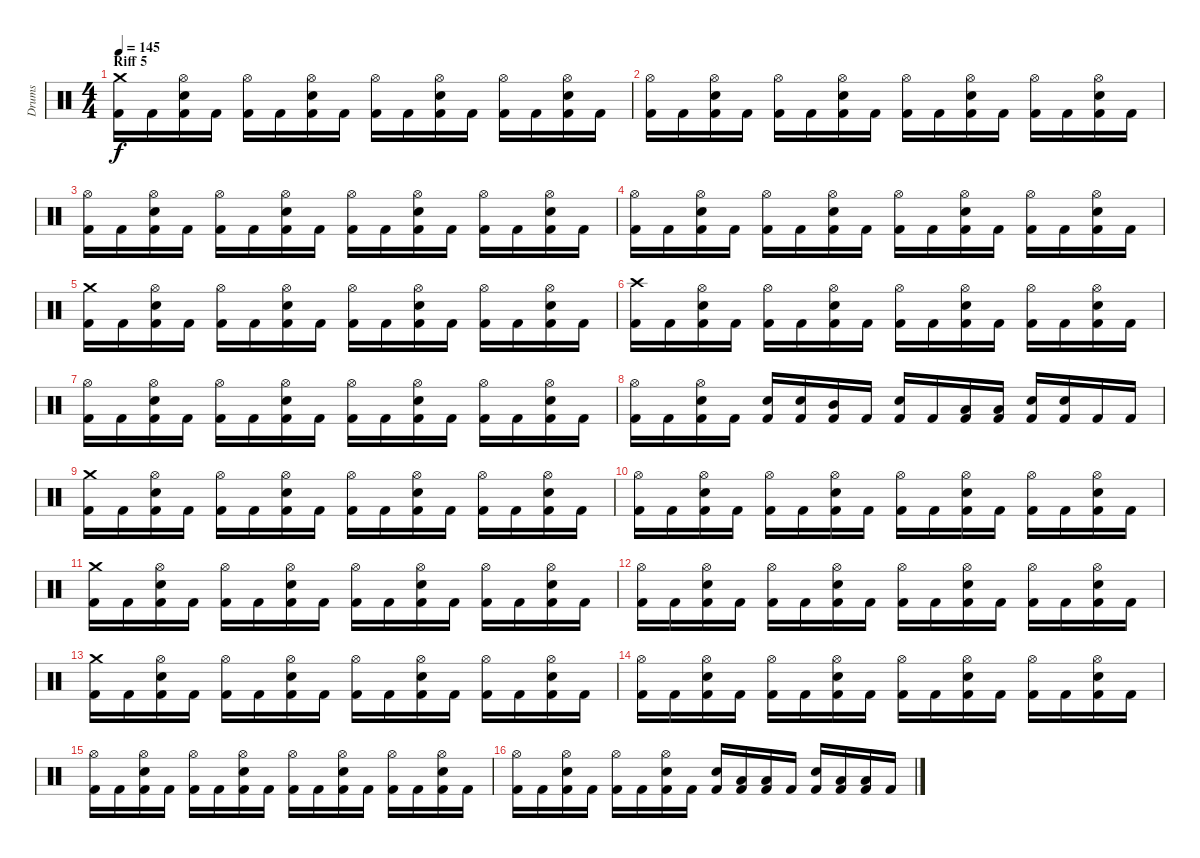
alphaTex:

\track ("Drums" "Drums") {instrument percussion}
\staff {score}
\articulation defaults
\ts (4 4)
\section ("" "Riff 5")
\tempo 145
\clef neutral
\ks c
("Crash medium (hit)" "Kick (hit) 2").16{dy f} "Kick (hit) 2".16 ("Hi-Hat (open)" "Electric Snare (hit)" "Kick (hit) 2").16 "Kick (hit) 2".16 ("Hi-Hat (open)" "Kick (hit) 2").16 "Kick (hit) 2".16 ("Hi-Hat (open)" "Electric Snare (hit)" "Kick (hit) 2").16 "Kick (hit) 2".16 ("Hi-Hat (open)" "Kick (hit) 2").16 "Kick (hit) 2".16 ("Hi-Hat (open)" "Electric Snare (hit)" "Kick (hit) 2").16 "Kick (hit) 2".16 ("Hi-Hat (open)" "Kick (hit) 2").16 "Kick (hit) 2".16 ("Hi-Hat (open)" "Electric Snare (hit)" "Kick (hit) 2").16 "Kick (hit) 2".16 |
("Hi-Hat (open)" "Kick (hit) 2").16 "Kick (hit) 2".16 ("Hi-Hat (open)" "Electric Snare (hit)" "Kick (hit) 2").16 "Kick (hit) 2".16 ("Hi-Hat (open)" "Kick (hit) 2").16 "Kick (hit) 2".16 ("Hi-Hat (open)" "Electric Snare (hit)" "Kick (hit) 2").16 "Kick (hit) 2".16 ("Hi-Hat (open)" "Kick (hit) 2").16 "Kick (hit) 2".16 ("Hi-Hat (open)" "Electric Snare (hit)" "Kick (hit) 2").16 "Kick (hit) 2".16 ("Hi-Hat (open)" "Kick (hit) 2").16 "Kick (hit) 2".16 ("Hi-Hat (open)" "Electric Snare (hit)" "Kick (hit) 2").16 "Kick (hit) 2".16 |
("Hi-Hat (open)" "Kick (hit) 2").16 "Kick (hit) 2".16 ("Hi-Hat (open)" "Electric Snare (hit)" "Kick (hit) 2").16 "Kick (hit) 2".16 ("Hi-Hat (open)" "Kick (hit) 2").16 "Kick (hit) 2".16 ("Hi-Hat (open)" "Electric Snare (hit)" "Kick (hit) 2").16 "Kick (hit) 2".16 ("Hi-Hat (open)" "Kick (hit) 2").16 "Kick (hit) 2".16 ("Hi-Hat (open)" "Electric Snare (hit)" "Kick (hit) 2").16 "Kick (hit) 2".16 ("Hi-Hat (open)" "Kick (hit) 2").16 "Kick (hit) 2".16 ("Hi-Hat (open)" "Electric Snare (hit)" "Kick (hit) 2").16 "Kick (hit) 2".16 |
("Hi-Hat (open)" "Kick (hit) 2").16 "Kick (hit) 2".16 ("Hi-Hat (open)" "Electric Snare (hit)" "Kick (hit) 2").16 "Kick (hit) 2".16 ("Hi-Hat (open)" "Kick (hit) 2").16 "Kick (hit) 2".16 ("Hi-Hat (open)" "Electric Snare (hit)" "Kick (hit) 2").16 "Kick (hit) 2".16 ("Hi-Hat (open)" "Kick (hit) 2").16 "Kick (hit) 2".16 ("Hi-Hat (open)" "Electric Snare (hit)" "Kick (hit) 2").16 "Kick (hit) 2".16 ("Hi-Hat (open)" "Kick (hit) 2").16 "Kick (hit) 2".16 ("Hi-Hat (open)" "Electric Snare (hit)" "Kick (hit) 2").16 "Kick (hit) 2".16 |
("Crash medium (hit)" "Kick (hit) 2").16 "Kick (hit) 2".16 ("Hi-Hat (open)" "Electric Snare (hit)" "Kick (hit) 2").16 "Kick (hit) 2".16 ("Hi-Hat (open)" "Kick (hit) 2").16 "Kick (hit) 2".16 ("Hi-Hat (open)" "Electric Snare (hit)" "Kick (hit) 2").16 "Kick (hit) 2".16 ("Hi-Hat (open)" "Kick (hit) 2").16 "Kick (hit) 2".16 ("Hi-Hat (open)" "Electric Snare (hit)" "Kick (hit) 2").16 "Kick (hit) 2".16 ("Hi-Hat (open)" "Kick (hit) 2").16 "Kick (hit) 2".16 ("Hi-Hat (open)" "Electric Snare (hit)" "Kick (hit) 2").16 "Kick (hit) 2".16 |
("Crash high (hit)" "Kick (hit) 2").16 "Kick (hit) 2".16 ("Hi-Hat (open)" "Electric Snare (hit)" "Kick (hit) 2").16 "Kick (hit) 2".16 ("Hi-Hat (open)" "Kick (hit) 2").16 "Kick (hit) 2".16 ("Hi-Hat (open)" "Electric Snare (hit)" "Kick (hit) 2").16 "Kick (hit) 2".16 ("Hi-Hat (open)" "Kick (hit) 2").16 "Kick (hit) 2".16 ("Hi-Hat (open)" "Electric Snare (hit)" "Kick (hit) 2").16 "Kick (hit) 2".16 ("Hi-Hat (open)" "Kick (hit) 2").16 "Kick (hit) 2".16 ("Hi-Hat (open)" "Electric Snare (hit)" "Kick (hit) 2").16 "Kick (hit) 2".16 |
("Hi-Hat (open)" "Kick (hit) 2").16 "Kick (hit) 2".16 ("Hi-Hat (open)" "Electric Snare (hit)" "Kick (hit) 2").16 "Kick (hit) 2".16 ("Hi-Hat (open)" "Kick (hit) 2").16 "Kick (hit) 2".16 ("Hi-Hat (open)" "Electric Snare (hit)" "Kick (hit) 2").16 "Kick (hit) 2".16 ("Hi-Hat (open)" "Kick (hit) 2").16 "Kick (hit) 2".16 ("Hi-Hat (open)" "Electric Snare (hit)" "Kick (hit) 2").16 "Kick (hit) 2".16 ("Hi-Hat (open)" "Kick (hit) 2").16 "Kick (hit) 2".16 ("Hi-Hat (open)" "Electric Snare (hit)" "Kick (hit) 2").16 "Kick (hit) 2".16 |
("Hi-Hat (open)" "Kick (hit) 2").16 "Kick (hit) 2".16 ("Hi-Hat (open)" "Electric Snare (hit)" "Kick (hit) 2").16 "Kick (hit) 2".16 ("Electric Snare (hit)" "Kick (hit) 2").16 ("Electric Snare (hit)" "Kick (hit) 2").16 ("Mid Tom (hit)" "Kick (hit) 2").16 "Kick (hit) 2".16 ("Electric Snare (hit)" "Kick (hit) 2").16 "Kick (hit) 2".16 ("Low Tom (hit)" "Kick (hit) 2").16 ("Low Tom (hit)" "Kick (hit) 2").16 ("Electric Snare (hit)" "Kick (hit) 2").16 ("Electric Snare (hit)" "Kick (hit) 2").16 "Kick (hit) 2".16 "Kick (hit) 2".16 |
("Crash medium (hit)" "Kick (hit) 2").16 "Kick (hit) 2".16 ("Hi-Hat (open)" "Electric Snare (hit)" "Kick (hit) 2").16 "Kick (hit) 2".16 ("Hi-Hat (open)" "Kick (hit) 2").16 "Kick (hit) 2".16 ("Hi-Hat (open)" "Electric Snare (hit)" "Kick (hit) 2").16 "Kick (hit) 2".16 ("Hi-Hat (open)" "Kick (hit) 2").16 "Kick (hit) 2".16 ("Hi-Hat (open)" "Electric Snare (hit)" "Kick (hit) 2").16 "Kick (hit) 2".16 ("Hi-Hat (open)" "Kick (hit) 2").16 "Kick (hit) 2".16 ("Hi-Hat (open)" "Electric Snare (hit)" "Kick (hit) 2").16 "Kick (hit) 2".16 |
("Hi-Hat (open)" "Kick (hit) 2").16 "Kick (hit) 2".16 ("Hi-Hat (open)" "Electric Snare (hit)" "Kick (hit) 2").16 "Kick (hit) 2".16 ("Hi-Hat (open)" "Kick (hit) 2").16 "Kick (hit) 2".16 ("Hi-Hat (open)" "Electric Snare (hit)" "Kick (hit) 2").16 "Kick (hit) 2".16 ("Hi-Hat (open)" "Kick (hit) 2").16 "Kick (hit) 2".16 ("Hi-Hat (open)" "Electric Snare (hit)" "Kick (hit) 2").16 "Kick (hit) 2".16 ("Hi-Hat (open)" "Kick (hit) 2").16 "Kick (hit) 2".16 ("Hi-Hat (open)" "Electric Snare (hit)" "Kick (hit) 2").16 "Kick (hit) 2".16 |
("Crash medium (hit)" "Kick (hit) 2").16 "Kick (hit) 2".16 ("Hi-Hat (open)" "Electric Snare (hit)" "Kick (hit) 2").16 "Kick (hit) 2".16 ("Hi-Hat (open)" "Kick (hit) 2").16 "Kick (hit) 2".16 ("Hi-Hat (open)" "Electric Snare (hit)" "Kick (hit) 2").16 "Kick (hit) 2".16 ("Hi-Hat (open)" "Kick (hit) 2").16 "Kick (hit) 2".16 ("Hi-Hat (open)" "Electric Snare (hit)" "Kick (hit) 2").16 "Kick (hit) 2".16 ("Hi-Hat (open)" "Kick (hit) 2").16 "Kick (hit) 2".16 ("Hi-Hat (open)" "Electric Snare (hit)" "Kick (hit) 2").16 "Kick (hit) 2".16 |
("Hi-Hat (open)" "Kick (hit) 2").16 "Kick (hit) 2".16 ("Hi-Hat (open)" "Electric Snare (hit)" "Kick (hit) 2").16 "Kick (hit) 2".16 ("Hi-Hat (open)" "Kick (hit) 2").16 "Kick (hit) 2".16 ("Hi-Hat (open)" "Electric Snare (hit)" "Kick (hit) 2").16 "Kick (hit) 2".16 ("Hi-Hat (open)" "Kick (hit) 2").16 "Kick (hit) 2".16 ("Hi-Hat (open)" "Electric Snare (hit)" "Kick (hit) 2").16 "Kick (hit) 2".16 ("Hi-Hat (open)" "Kick (hit) 2").16 "Kick (hit) 2".16 ("Hi-Hat (open)" "Electric Snare (hit)" "Kick (hit) 2").16 "Kick (hit) 2".16 |
("Crash medium (hit)" "Kick (hit) 2").16 "Kick (hit) 2".16 ("Hi-Hat (open)" "Electric Snare (hit)" "Kick (hit) 2").16 "Kick (hit) 2".16 ("Hi-Hat (open)" "Kick (hit) 2").16 "Kick (hit) 2".16 ("Hi-Hat (open)" "Electric Snare (hit)" "Kick (hit) 2").16 "Kick (hit) 2".16 ("Hi-Hat (open)" "Kick (hit) 2").16 "Kick (hit) 2".16 ("Hi-Hat (open)" "Electric Snare (hit)" "Kick (hit) 2").16 "Kick (hit) 2".16 ("Hi-Hat (open)" "Kick (hit) 2").16 "Kick (hit) 2".16 ("Hi-Hat (open)" "Electric Snare (hit)" "Kick (hit) 2").16 "Kick (hit) 2".16 |
("Hi-Hat (open)" "Kick (hit) 2").16 "Kick (hit) 2".16 ("Hi-Hat (open)" "Electric Snare (hit)" "Kick (hit) 2").16 "Kick (hit) 2".16 ("Hi-Hat (open)" "Kick (hit) 2").16 "Kick (hit) 2".16 ("Hi-Hat (open)" "Electric Snare (hit)" "Kick (hit) 2").16 "Kick (hit) 2".16 ("Hi-Hat (open)" "Kick (hit) 2").16 "Kick (hit) 2".16 ("Hi-Hat (open)" "Electric Snare (hit)" "Kick (hit) 2").16 "Kick (hit) 2".16 ("Hi-Hat (open)" "Kick (hit) 2").16 "Kick (hit) 2".16 ("Hi-Hat (open)" "Electric Snare (hit)" "Kick (hit) 2").16 "Kick (hit) 2".16 |
("Hi-Hat (open)" "Kick (hit) 2").16 "Kick (hit) 2".16 ("Hi-Hat (open)" "Electric Snare (hit)" "Kick (hit) 2").16 "Kick (hit) 2".16 ("Hi-Hat (open)" "Kick (hit) 2").16 "Kick (hit) 2".16 ("Hi-Hat (open)" "Electric Snare (hit)" "Kick (hit) 2").16 "Kick (hit) 2".16 ("Hi-Hat (open)" "Kick (hit) 2").16 "Kick (hit) 2".16 ("Hi-Hat (open)" "Electric Snare (hit)" "Kick (hit) 2").16 "Kick (hit) 2".16 ("Hi-Hat (open)" "Kick (hit) 2").16 "Kick (hit) 2".16 ("Hi-Hat (open)" "Electric Snare (hit)" "Kick (hit) 2").16 "Kick (hit) 2".16 |
("Hi-Hat (open)" "Kick (hit) 2").16 "Kick (hit) 2".16 ("Hi-Hat (open)" "Electric Snare (hit)" "Kick (hit) 2").16 "Kick (hit) 2".16 ("Hi-Hat (open)" "Kick (hit) 2").16 "Kick (hit) 2".16 ("Hi-Hat (open)" "Electric Snare (hit)" "Kick (hit) 2").16 "Kick (hit) 2".16 ("Electric Snare (hit)" "Kick (hit) 2").16 ("Low Tom (hit)" "Kick (hit) 2").16 ("Low Tom (hit)" "Kick (hit) 2").16 "Kick (hit) 2".16 ("Electric Snare (hit)" "Kick (hit) 2").16 ("Low Tom (hit)" "Kick (hit) 2").16 ("Low Tom (hit)" "Kick (hit) 2").16 "Kick (hit) 2".16
